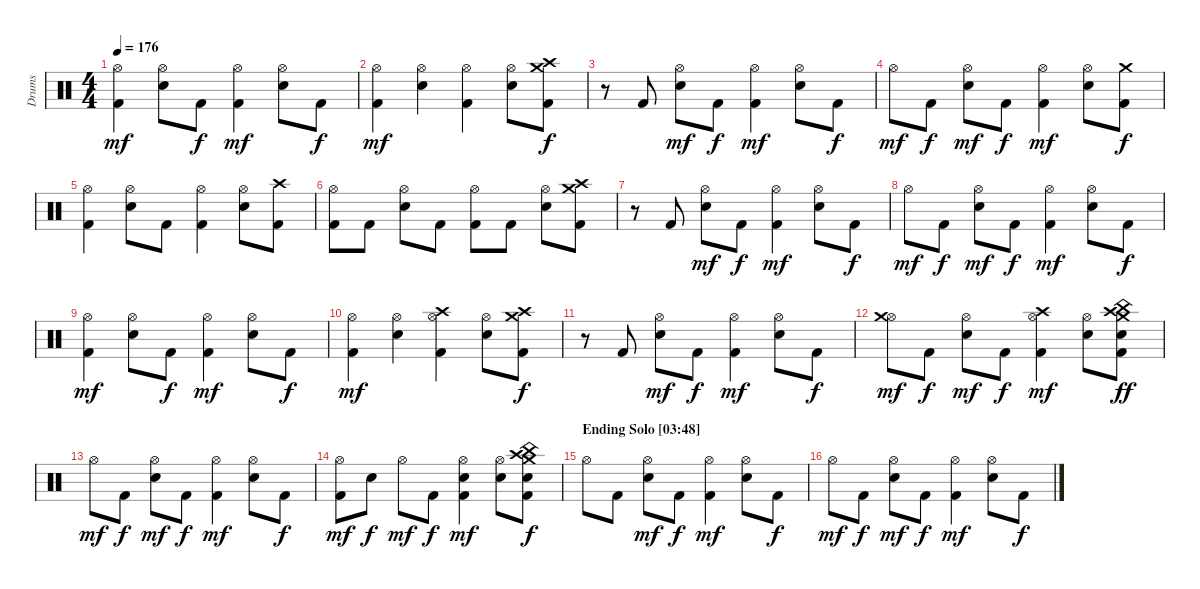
\track ("Drums" "Drums") {instrument percussion}
\staff {score}
\articulation defaults
\ts (4 4)
\tempo 176
\clef neutral
\ks c
("Hi-Hat (open)" "Kick (hit) 2").4{dy mf} ("Hi-Hat (open)" "Electric Snare (hit)").8 "Kick (hit) 2".8{dy f} ("Hi-Hat (open)" "Kick (hit) 2").4{dy mf} ("Hi-Hat (open)" "Electric Snare (hit)").8 "Kick (hit) 2".8{dy f} |
("Hi-Hat (open)" "Kick (hit) 2").4{dy mf} ("Hi-Hat (open)" "Electric Snare (hit)").4 ("Hi-Hat (open)" "Kick (hit) 2").4 ("Hi-Hat (open)" "Electric Snare (hit)").8 ("Crash medium (hit)" "Crash high (hit)" "Kick (hit) 2").8{dy f} |
r.8 "Kick (hit) 2".8 ("Hi-Hat (open)" "Electric Snare (hit)").8{dy mf} "Kick (hit) 2".8{dy f} ("Hi-Hat (open)" "Kick (hit) 2").4{dy mf} ("Hi-Hat (open)" "Electric Snare (hit)").8 "Kick (hit) 2".8{dy f} |
"Hi-Hat (open)".8{dy mf} "Kick (hit) 2".8{dy f} ("Hi-Hat (open)" "Electric Snare (hit)").8{dy mf} "Kick (hit) 2".8{dy f} ("Hi-Hat (open)" "Kick (hit) 2").4{dy mf} ("Hi-Hat (open)" "Electric Snare (hit)").8 ("Crash medium (hit)" "Kick (hit) 2").8{dy f} |
("Hi-Hat (open)" "Kick (hit) 2").4 ("Hi-Hat (open)" "Electric Snare (hit)").8 "Kick (hit) 2".8 ("Hi-Hat (open)" "Kick (hit) 2").4 ("Hi-Hat (open)" "Electric Snare (hit)").8 ("Crash high (hit)" "Kick (hit) 2").8 |
("Hi-Hat (open)" "Kick (hit) 2").8 "Kick (hit) 2".8 ("Hi-Hat (open)" "Electric Snare (hit)").8 "Kick (hit) 2".8 ("Hi-Hat (open)" "Kick (hit) 2").8 "Kick (hit) 2".8 ("Hi-Hat (open)" "Electric Snare (hit)").8 ("Crash medium (hit)" "Crash high (hit)" "Kick (hit) 2").8 |
\section ("" "")
r.8 "Kick (hit) 2".8 ("Hi-Hat (open)" "Electric Snare (hit)").8{dy mf} "Kick (hit) 2".8{dy f} ("Hi-Hat (open)" "Kick (hit) 2").4{dy mf} ("Hi-Hat (open)" "Electric Snare (hit)").8 "Kick (hit) 2".8{dy f} |
"Hi-Hat (open)".8{dy mf} "Kick (hit) 2".8{dy f} ("Hi-Hat (open)" "Electric Snare (hit)").8{dy mf} "Kick (hit) 2".8{dy f} ("Hi-Hat (open)" "Kick (hit) 2").4{dy mf} ("Hi-Hat (open)" "Electric Snare (hit)").8 "Kick (hit) 2".8{dy f} |
("Hi-Hat (open)" "Kick (hit) 2").4{dy mf} ("Hi-Hat (open)" "Electric Snare (hit)").8 "Kick (hit) 2".8{dy f} ("Hi-Hat (open)" "Kick (hit) 2").4{dy mf} ("Hi-Hat (open)" "Electric Snare (hit)").8 "Kick (hit) 2".8{dy f} |
("Hi-Hat (open)" "Kick (hit) 2").4{dy mf} ("Hi-Hat (open)" "Electric Snare (hit)").4 ("Hi-Hat (open)" "Crash high (hit)" "Kick (hit) 2").4 ("Hi-Hat (open)" "Electric Snare (hit)").8 ("Crash medium (hit)" "Crash high (hit)" "Kick (hit) 2").8{dy f} |
r.8 "Kick (hit) 2".8 ("Hi-Hat (open)" "Electric Snare (hit)").8{dy mf} "Kick (hit) 2".8{dy f} ("Hi-Hat (open)" "Kick (hit) 2").4{dy mf} ("Hi-Hat (open)" "Electric Snare (hit)").8 "Kick (hit) 2".8{dy f} |
("Hi-Hat (open)" "Crash medium (hit)").8{dy mf} "Kick (hit) 2".8{dy f} ("Hi-Hat (open)" "Electric Snare (hit)").8{dy mf} "Kick (hit) 2".8{dy f} ("Hi-Hat (open)" "Crash high (hit)" "Kick (hit) 2").4{dy mf} ("Hi-Hat (open)" "Electric Snare (hit)").8 ("Crash high (hit)" "China (hit)" "Crash medium (hit)" "Snare (hit) 2" "Kick (hit) 2").8{dy ff} |
"Hi-Hat (open)".8{dy mf} "Kick (hit) 2".8{dy f} ("Hi-Hat (open)" "Electric Snare (hit)").8{dy mf} "Kick (hit) 2".8{dy f} ("Hi-Hat (open)" "Kick (hit) 2").4{dy mf} ("Hi-Hat (open)" "Electric Snare (hit)").8 "Kick (hit) 2".8{dy f} |
("Hi-Hat (open)" "Kick (hit) 2").8{dy mf} "Electric Snare (hit)".8{dy f} "Hi-Hat (open)".8{dy mf} "Kick (hit) 2".8{dy f} ("Hi-Hat (open)" "Electric Snare (hit)" "Kick (hit) 2").4{dy mf} ("Hi-Hat (open)" "Electric Snare (hit)").8 ("Crash medium (hit)" "Crash high (hit)" "China (hit)" "Electric Snare (hit)" "Kick (hit) 2").8{dy f} |
\section ("" "Ending Solo [03:48]")
"Hi-Hat (open)".8 "Kick (hit) 2".8 ("Hi-Hat (open)" "Electric Snare (hit)").8{dy mf} "Kick (hit) 2".8{dy f} ("Hi-Hat (open)" "Kick (hit) 2").4{dy mf} ("Hi-Hat (open)" "Electric Snare (hit)").8 "Kick (hit) 2".8{dy f} |
"Hi-Hat (open)".8{dy mf} "Kick (hit) 2".8{dy f} ("Hi-Hat (open)" "Electric Snare (hit)").8{dy mf} "Kick (hit) 2".8{dy f} ("Hi-Hat (open)" "Kick (hit) 2").4{dy mf} ("Hi-Hat (open)" "Electric Snare (hit)").8 "Kick (hit) 2".8{dy f}
